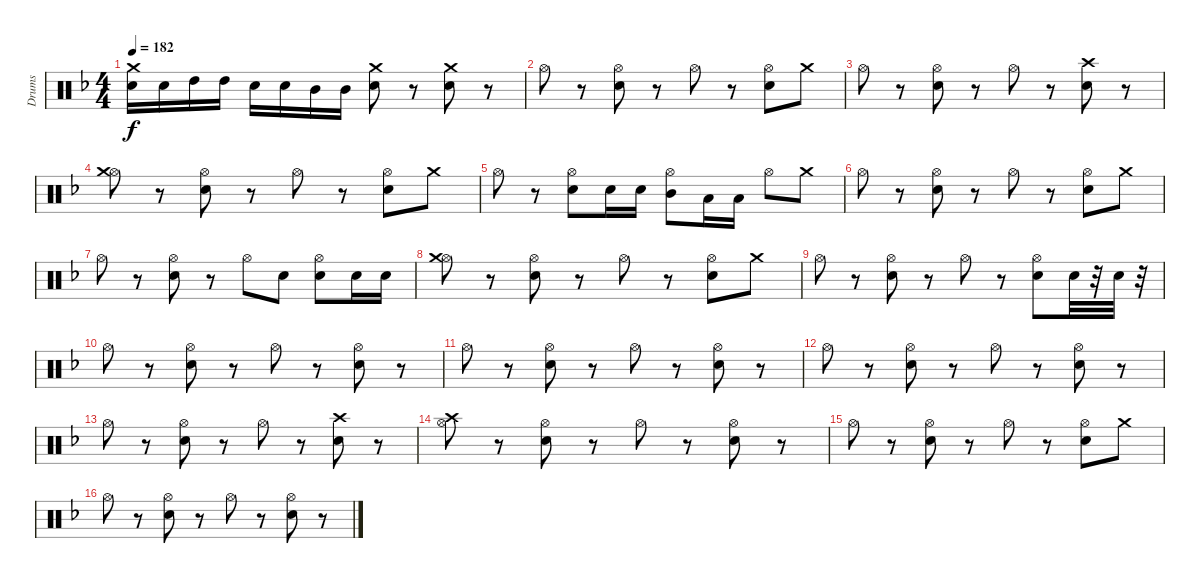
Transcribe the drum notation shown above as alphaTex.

\track ("Drums" "Drums") {instrument percussion}
\staff {score}
\articulation defaults
\ts (4 4)
\tempo 182
\clef neutral
\ks dminor
("Crash medium (hit)" "Snare (hit) 2").16{dy f} "Snare (hit) 2".16 "High Tom (hit)".16 "High Tom (hit)".16 "Snare (hit) 2".16 "Snare (hit) 2".16 "Mid Tom (hit)".16 "Mid Tom (hit)".16 ("Crash medium (hit)" "Snare (hit) 2").8 r.8 ("Crash medium (hit)" "Snare (hit) 2").8 r.8 |
"Hi-Hat (open)".8 r.8 ("Hi-Hat (open)" "Snare (hit) 2").8 r.8 "Hi-Hat (open)".8 r.8 ("Hi-Hat (open)" "Snare (hit) 2").8 "Crash medium (hit)".8 |
"Hi-Hat (open)".8 r.8 ("Hi-Hat (open)" "Snare (hit) 2").8 r.8 "Hi-Hat (open)".8 r.8 ("Crash high (hit)" "Snare (hit) 2").8 r.8 |
("Hi-Hat (open)" "Crash medium (hit)").8 r.8 ("Hi-Hat (open)" "Snare (hit) 2").8 r.8 "Hi-Hat (open)".8 r.8 ("Hi-Hat (open)" "Snare (hit) 2").8 "Crash medium (hit)".8 |
"Hi-Hat (open)".8 r.8 ("Hi-Hat (open)" "Snare (hit) 2").8 "Snare (hit) 2".16 "Snare (hit) 2".16 ("Mid Tom (hit)" "Hi-Hat (open)").8 "Low Tom (hit)".16 "Low Tom (hit)".16 "Hi-Hat (open)".8 "Crash medium (hit)".8 |
"Hi-Hat (open)".8 r.8 ("Hi-Hat (open)" "Snare (hit) 2").8 r.8 "Hi-Hat (open)".8 r.8 ("Hi-Hat (open)" "Snare (hit) 2").8 "Crash medium (hit)".8 |
"Hi-Hat (open)".8 r.8 ("Hi-Hat (open)" "Snare (hit) 2").8 r.8 "Hi-Hat (open)".8 "Snare (hit) 2".8 ("Hi-Hat (open)" "Snare (hit) 2").8 "Snare (hit) 2".16 "Snare (hit) 2".16 |
("Hi-Hat (open)" "Crash medium (hit)").8 r.8 ("Hi-Hat (open)" "Snare (hit) 2").8 r.8 "Hi-Hat (open)".8 r.8 ("Hi-Hat (open)" "Snare (hit) 2").8 "Crash medium (hit)".8 |
"Hi-Hat (open)".8 r.8 ("Hi-Hat (open)" "Snare (hit) 2").8 r.8 "Hi-Hat (open)".8 r.8 ("Hi-Hat (open)" "Snare (hit) 2").8 "Snare (hit) 2".32 r.32 "Snare (hit) 2".32 r.32 |
"Hi-Hat (open)".8 r.8 ("Hi-Hat (open)" "Snare (hit) 2").8 r.8 "Hi-Hat (open)".8 r.8 ("Hi-Hat (open)" "Snare (hit) 2").8 r.8 |
"Hi-Hat (open)".8 r.8 ("Hi-Hat (open)" "Snare (hit) 2").8 r.8 "Hi-Hat (open)".8 r.8 ("Hi-Hat (open)" "Snare (hit) 2").8 r.8 |
"Hi-Hat (open)".8 r.8 ("Hi-Hat (open)" "Snare (hit) 2").8 r.8 "Hi-Hat (open)".8 r.8 ("Hi-Hat (open)" "Snare (hit) 2").8 r.8 |
"Hi-Hat (open)".8 r.8 ("Hi-Hat (open)" "Snare (hit) 2").8 r.8 "Hi-Hat (open)".8 r.8 ("Crash high (hit)" "Snare (hit) 2").8 r.8 |
("Hi-Hat (open)" "Crash high (hit)").8 r.8 ("Hi-Hat (open)" "Snare (hit) 2").8 r.8 "Hi-Hat (open)".8 r.8 ("Hi-Hat (open)" "Snare (hit) 2").8 r.8 |
"Hi-Hat (open)".8 r.8 ("Hi-Hat (open)" "Snare (hit) 2").8 r.8 "Hi-Hat (open)".8 r.8 ("Hi-Hat (open)" "Snare (hit) 2").8 "Crash medium (hit)".8 |
"Hi-Hat (open)".8 r.8 ("Hi-Hat (open)" "Snare (hit) 2").8 r.8 "Hi-Hat (open)".8 r.8 ("Hi-Hat (open)" "Snare (hit) 2").8 r.8
